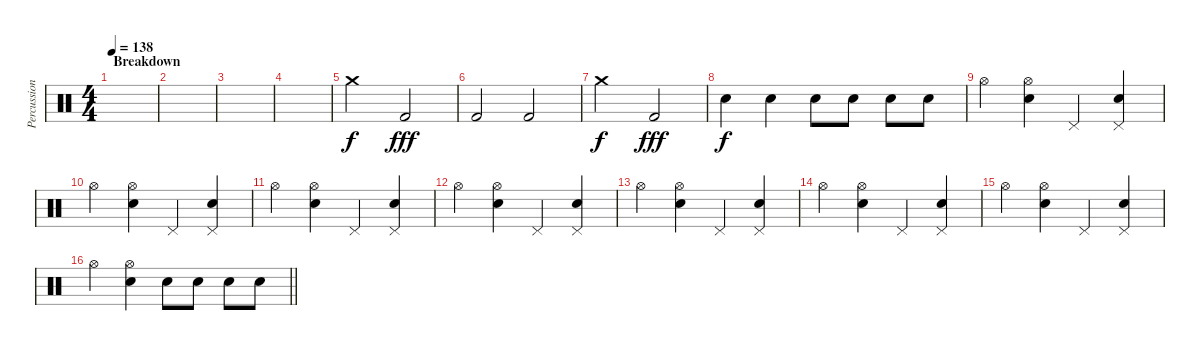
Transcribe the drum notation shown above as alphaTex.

\track ("Percussion" "Percussion") {instrument percussion}
\staff {score}
\articulation defaults
\ts (4 4)
\section ("" "Breakdown")
\tempo 138
\clef neutral
\ks c
|
|
|
|
"Crash medium (hit)".2{dy f} "Kick (hit) 2".2{dy fff} |
"Kick (hit) 2".2 "Kick (hit) 2".2 |
"Crash medium (hit)".2{dy f} "Kick (hit) 2".2{dy fff} |
"Snare (hit) 2".4{dy f} "Snare (hit) 2".4 "Snare (hit) 2".8 "Snare (hit) 2".8 "Snare (hit) 2".8 "Snare (hit) 2".8 |
"Hi-Hat (open)".4 ("Hi-Hat (open)" "Snare (hit) 2").4 "Pedal Hi-Hat (hit)".4 ("Pedal Hi-Hat (hit)" "Snare (hit) 2").4 |
"Hi-Hat (open)".4 ("Hi-Hat (open)" "Snare (hit) 2").4 "Pedal Hi-Hat (hit)".4 ("Pedal Hi-Hat (hit)" "Snare (hit) 2").4 |
"Hi-Hat (open)".4 ("Hi-Hat (open)" "Snare (hit) 2").4 "Pedal Hi-Hat (hit)".4 ("Pedal Hi-Hat (hit)" "Snare (hit) 2").4 |
"Hi-Hat (open)".4 ("Hi-Hat (open)" "Snare (hit) 2").4 "Pedal Hi-Hat (hit)".4 ("Pedal Hi-Hat (hit)" "Snare (hit) 2").4 |
"Hi-Hat (open)".4 ("Hi-Hat (open)" "Snare (hit) 2").4 "Pedal Hi-Hat (hit)".4 ("Pedal Hi-Hat (hit)" "Snare (hit) 2").4 |
"Hi-Hat (open)".4 ("Hi-Hat (open)" "Snare (hit) 2").4 "Pedal Hi-Hat (hit)".4 ("Pedal Hi-Hat (hit)" "Snare (hit) 2").4 |
"Hi-Hat (open)".4 ("Hi-Hat (open)" "Snare (hit) 2").4 "Pedal Hi-Hat (hit)".4 ("Pedal Hi-Hat (hit)" "Snare (hit) 2").4 |
\barLineRight lightlight "Hi-Hat (open)".4
("Hi-Hat (open)" "Snare (hit) 2").4 "Snare (hit) 2".8 "Snare (hit) 2".8 "Snare (hit) 2".8 "Snare (hit) 2".8
